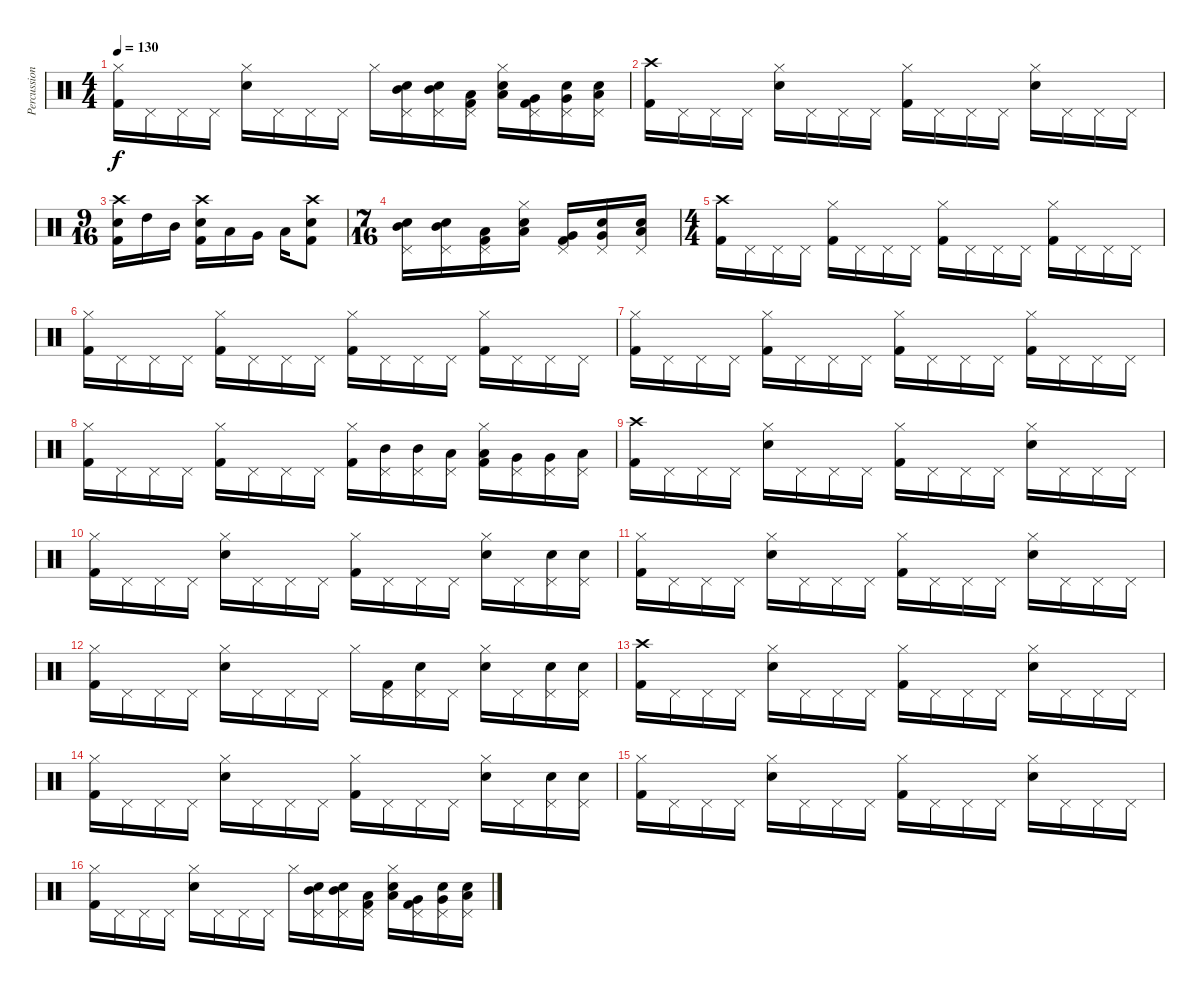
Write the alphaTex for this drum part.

\track ("Percussion" "Percussion") {instrument percussion}
\staff {score}
\articulation defaults
\ts (4 4)
\tempo 130
\clef neutral
\ks c
("Hi-Hat (closed)" "Kick (hit) 2").16{dy f} "Pedal Hi-Hat (hit)".16 "Pedal Hi-Hat (hit)".16 "Pedal Hi-Hat (hit)".16 ("Hi-Hat (closed)" "Snare (hit) 2").16 "Pedal Hi-Hat (hit)".16 "Pedal Hi-Hat (hit)".16 "Pedal Hi-Hat (hit)".16 "Hi-Hat (closed)".16 ("Pedal Hi-Hat (hit)" "Mid Tom (hit)" "Snare (hit) 2").16 ("Pedal Hi-Hat (hit)" "Mid Tom (hit)" "Snare (hit) 2").16 ("Pedal Hi-Hat (hit)" "Low Tom (hit)" "Kick (hit) 2").16 ("Hi-Hat (closed)" "Low Tom (hit)" "Snare (hit) 2").16 ("Pedal Hi-Hat (hit)" "Very Low Tom (hit)" "Kick (hit) 2").16 ("Pedal Hi-Hat (hit)" "Very Low Tom (hit)" "Snare (hit) 2").16 ("Pedal Hi-Hat (hit)" "Low Floor Tom (hit)" "Snare (hit) 2").16 |
("Crash high (hit)" "Kick (hit) 2").16 "Pedal Hi-Hat (hit)".16 "Pedal Hi-Hat (hit)".16 "Pedal Hi-Hat (hit)".16 ("Hi-Hat (closed)" "Snare (hit) 2").16 "Pedal Hi-Hat (hit)".16 "Pedal Hi-Hat (hit)".16 "Pedal Hi-Hat (hit)".16 ("Hi-Hat (closed)" "Kick (hit) 2").16 "Pedal Hi-Hat (hit)".16 "Pedal Hi-Hat (hit)".16 "Pedal Hi-Hat (hit)".16 ("Hi-Hat (closed)" "Snare (hit) 2").16 "Pedal Hi-Hat (hit)".16 "Pedal Hi-Hat (hit)".16 "Pedal Hi-Hat (hit)".16 |
\ts (9 16)
("Crash high (hit)" "Snare (hit) 2" "Kick (hit) 2").16 "High Tom (hit)".16 "Mid Tom (hit)".16 ("Crash high (hit)" "Snare (hit) 2" "Kick (hit) 2").16 "Low Tom (hit)".16 "Very Low Tom (hit)".16 "Low Floor Tom (hit)".16 ("Crash high (hit)" "Snare (hit) 2" "Kick (hit) 2").8 |
\ts (7 16)
("Pedal Hi-Hat (hit)" "Mid Tom (hit)" "Snare (hit) 2").16 ("Pedal Hi-Hat (hit)" "Mid Tom (hit)" "Snare (hit) 2").16 ("Pedal Hi-Hat (hit)" "Low Tom (hit)" "Kick (hit) 2").16 ("Hi-Hat (closed)" "Low Tom (hit)" "Snare (hit) 2").16 ("Pedal Hi-Hat (hit)" "Very Low Tom (hit)" "Kick (hit) 2").16 ("Pedal Hi-Hat (hit)" "Very Low Tom (hit)" "Snare (hit) 2").16 ("Pedal Hi-Hat (hit)" "Low Floor Tom (hit)" "Snare (hit) 2").16 |
\ts (4 4)
("Crash high (hit)" "Kick (hit) 2").16 "Pedal Hi-Hat (hit)".16 "Pedal Hi-Hat (hit)".16 "Pedal Hi-Hat (hit)".16 ("Hi-Hat (closed)" "Kick (hit) 2").16 "Pedal Hi-Hat (hit)".16 "Pedal Hi-Hat (hit)".16 "Pedal Hi-Hat (hit)".16 ("Hi-Hat (closed)" "Kick (hit) 2").16 "Pedal Hi-Hat (hit)".16 "Pedal Hi-Hat (hit)".16 "Pedal Hi-Hat (hit)".16 ("Hi-Hat (closed)" "Kick (hit) 2").16 "Pedal Hi-Hat (hit)".16 "Pedal Hi-Hat (hit)".16 "Pedal Hi-Hat (hit)".16 |
("Hi-Hat (closed)" "Kick (hit) 2").16 "Pedal Hi-Hat (hit)".16 "Pedal Hi-Hat (hit)".16 "Pedal Hi-Hat (hit)".16 ("Hi-Hat (closed)" "Kick (hit) 2").16 "Pedal Hi-Hat (hit)".16 "Pedal Hi-Hat (hit)".16 "Pedal Hi-Hat (hit)".16 ("Hi-Hat (closed)" "Kick (hit) 2").16 "Pedal Hi-Hat (hit)".16 "Pedal Hi-Hat (hit)".16 "Pedal Hi-Hat (hit)".16 ("Hi-Hat (closed)" "Kick (hit) 2").16 "Pedal Hi-Hat (hit)".16 "Pedal Hi-Hat (hit)".16 "Pedal Hi-Hat (hit)".16 |
("Hi-Hat (closed)" "Kick (hit) 2").16 "Pedal Hi-Hat (hit)".16 "Pedal Hi-Hat (hit)".16 "Pedal Hi-Hat (hit)".16 ("Hi-Hat (closed)" "Kick (hit) 2").16 "Pedal Hi-Hat (hit)".16 "Pedal Hi-Hat (hit)".16 "Pedal Hi-Hat (hit)".16 ("Hi-Hat (closed)" "Kick (hit) 2").16 "Pedal Hi-Hat (hit)".16 "Pedal Hi-Hat (hit)".16 "Pedal Hi-Hat (hit)".16 ("Hi-Hat (closed)" "Kick (hit) 2").16 "Pedal Hi-Hat (hit)".16 "Pedal Hi-Hat (hit)".16 "Pedal Hi-Hat (hit)".16 |
("Hi-Hat (closed)" "Kick (hit) 2").16 "Pedal Hi-Hat (hit)".16 "Pedal Hi-Hat (hit)".16 "Pedal Hi-Hat (hit)".16 ("Hi-Hat (closed)" "Kick (hit) 2").16 "Pedal Hi-Hat (hit)".16 "Pedal Hi-Hat (hit)".16 "Pedal Hi-Hat (hit)".16 ("Hi-Hat (closed)" "Kick (hit) 2").16 ("Pedal Hi-Hat (hit)" "Mid Tom (hit)").16 ("Pedal Hi-Hat (hit)" "Mid Tom (hit)").16 ("Pedal Hi-Hat (hit)" "Low Tom (hit)").16 ("Hi-Hat (closed)" "Low Tom (hit)" "Kick (hit) 2").16 ("Pedal Hi-Hat (hit)" "Very Low Tom (hit)").16 ("Pedal Hi-Hat (hit)" "Very Low Tom (hit)").16 ("Pedal Hi-Hat (hit)" "Low Floor Tom (hit)").16 |
("Crash high (hit)" "Kick (hit) 2").16 "Pedal Hi-Hat (hit)".16 "Pedal Hi-Hat (hit)".16 "Pedal Hi-Hat (hit)".16 ("Hi-Hat (closed)" "Snare (hit) 2").16 "Pedal Hi-Hat (hit)".16 "Pedal Hi-Hat (hit)".16 "Pedal Hi-Hat (hit)".16 ("Hi-Hat (closed)" "Kick (hit) 2").16 "Pedal Hi-Hat (hit)".16 "Pedal Hi-Hat (hit)".16 "Pedal Hi-Hat (hit)".16 ("Hi-Hat (closed)" "Snare (hit) 2").16 "Pedal Hi-Hat (hit)".16 "Pedal Hi-Hat (hit)".16 "Pedal Hi-Hat (hit)".16 |
("Hi-Hat (closed)" "Kick (hit) 2").16 "Pedal Hi-Hat (hit)".16 "Pedal Hi-Hat (hit)".16 "Pedal Hi-Hat (hit)".16 ("Hi-Hat (closed)" "Snare (hit) 2").16 "Pedal Hi-Hat (hit)".16 "Pedal Hi-Hat (hit)".16 "Pedal Hi-Hat (hit)".16 ("Hi-Hat (closed)" "Kick (hit) 2").16 "Pedal Hi-Hat (hit)".16 "Pedal Hi-Hat (hit)".16 "Pedal Hi-Hat (hit)".16 ("Hi-Hat (closed)" "Snare (hit) 2").16 "Pedal Hi-Hat (hit)".16 ("Pedal Hi-Hat (hit)" "Snare (hit) 2").16 ("Pedal Hi-Hat (hit)" "Snare (hit) 2").16 |
("Hi-Hat (closed)" "Kick (hit) 2").16 "Pedal Hi-Hat (hit)".16 "Pedal Hi-Hat (hit)".16 "Pedal Hi-Hat (hit)".16 ("Hi-Hat (closed)" "Snare (hit) 2").16 "Pedal Hi-Hat (hit)".16 "Pedal Hi-Hat (hit)".16 "Pedal Hi-Hat (hit)".16 ("Hi-Hat (closed)" "Kick (hit) 2").16 "Pedal Hi-Hat (hit)".16 "Pedal Hi-Hat (hit)".16 "Pedal Hi-Hat (hit)".16 ("Hi-Hat (closed)" "Snare (hit) 2").16 "Pedal Hi-Hat (hit)".16 "Pedal Hi-Hat (hit)".16 "Pedal Hi-Hat (hit)".16 |
("Hi-Hat (closed)" "Kick (hit) 2").16 "Pedal Hi-Hat (hit)".16 "Pedal Hi-Hat (hit)".16 "Pedal Hi-Hat (hit)".16 ("Hi-Hat (closed)" "Snare (hit) 2").16 "Pedal Hi-Hat (hit)".16 "Pedal Hi-Hat (hit)".16 "Pedal Hi-Hat (hit)".16 "Hi-Hat (closed)".16 ("Pedal Hi-Hat (hit)" "Kick (hit) 2").16 ("Pedal Hi-Hat (hit)" "Snare (hit) 2").16 "Pedal Hi-Hat (hit)".16 ("Hi-Hat (closed)" "Snare (hit) 2").16 "Pedal Hi-Hat (hit)".16 ("Pedal Hi-Hat (hit)" "Snare (hit) 2").16 ("Pedal Hi-Hat (hit)" "Snare (hit) 2").16 |
("Crash high (hit)" "Kick (hit) 2").16 "Pedal Hi-Hat (hit)".16 "Pedal Hi-Hat (hit)".16 "Pedal Hi-Hat (hit)".16 ("Hi-Hat (closed)" "Snare (hit) 2").16 "Pedal Hi-Hat (hit)".16 "Pedal Hi-Hat (hit)".16 "Pedal Hi-Hat (hit)".16 ("Hi-Hat (closed)" "Kick (hit) 2").16 "Pedal Hi-Hat (hit)".16 "Pedal Hi-Hat (hit)".16 "Pedal Hi-Hat (hit)".16 ("Hi-Hat (closed)" "Snare (hit) 2").16 "Pedal Hi-Hat (hit)".16 "Pedal Hi-Hat (hit)".16 "Pedal Hi-Hat (hit)".16 |
("Hi-Hat (closed)" "Kick (hit) 2").16 "Pedal Hi-Hat (hit)".16 "Pedal Hi-Hat (hit)".16 "Pedal Hi-Hat (hit)".16 ("Hi-Hat (closed)" "Snare (hit) 2").16 "Pedal Hi-Hat (hit)".16 "Pedal Hi-Hat (hit)".16 "Pedal Hi-Hat (hit)".16 ("Hi-Hat (closed)" "Kick (hit) 2").16 "Pedal Hi-Hat (hit)".16 "Pedal Hi-Hat (hit)".16 "Pedal Hi-Hat (hit)".16 ("Hi-Hat (closed)" "Snare (hit) 2").16 "Pedal Hi-Hat (hit)".16 ("Pedal Hi-Hat (hit)" "Snare (hit) 2").16 ("Pedal Hi-Hat (hit)" "Snare (hit) 2").16 |
("Hi-Hat (closed)" "Kick (hit) 2").16 "Pedal Hi-Hat (hit)".16 "Pedal Hi-Hat (hit)".16 "Pedal Hi-Hat (hit)".16 ("Hi-Hat (closed)" "Snare (hit) 2").16 "Pedal Hi-Hat (hit)".16 "Pedal Hi-Hat (hit)".16 "Pedal Hi-Hat (hit)".16 ("Hi-Hat (closed)" "Kick (hit) 2").16 "Pedal Hi-Hat (hit)".16 "Pedal Hi-Hat (hit)".16 "Pedal Hi-Hat (hit)".16 ("Hi-Hat (closed)" "Snare (hit) 2").16 "Pedal Hi-Hat (hit)".16 "Pedal Hi-Hat (hit)".16 "Pedal Hi-Hat (hit)".16 |
("Hi-Hat (closed)" "Kick (hit) 2").16 "Pedal Hi-Hat (hit)".16 "Pedal Hi-Hat (hit)".16 "Pedal Hi-Hat (hit)".16 ("Hi-Hat (closed)" "Snare (hit) 2").16 "Pedal Hi-Hat (hit)".16 "Pedal Hi-Hat (hit)".16 "Pedal Hi-Hat (hit)".16 "Hi-Hat (closed)".16 ("Pedal Hi-Hat (hit)" "Mid Tom (hit)" "Snare (hit) 2").16 ("Pedal Hi-Hat (hit)" "Mid Tom (hit)" "Snare (hit) 2").16 ("Pedal Hi-Hat (hit)" "Low Tom (hit)" "Kick (hit) 2").16 ("Hi-Hat (closed)" "Low Tom (hit)" "Snare (hit) 2").16 ("Pedal Hi-Hat (hit)" "Very Low Tom (hit)" "Kick (hit) 2").16 ("Pedal Hi-Hat (hit)" "Very Low Tom (hit)" "Snare (hit) 2").16 ("Pedal Hi-Hat (hit)" "Low Floor Tom (hit)" "Snare (hit) 2").16
